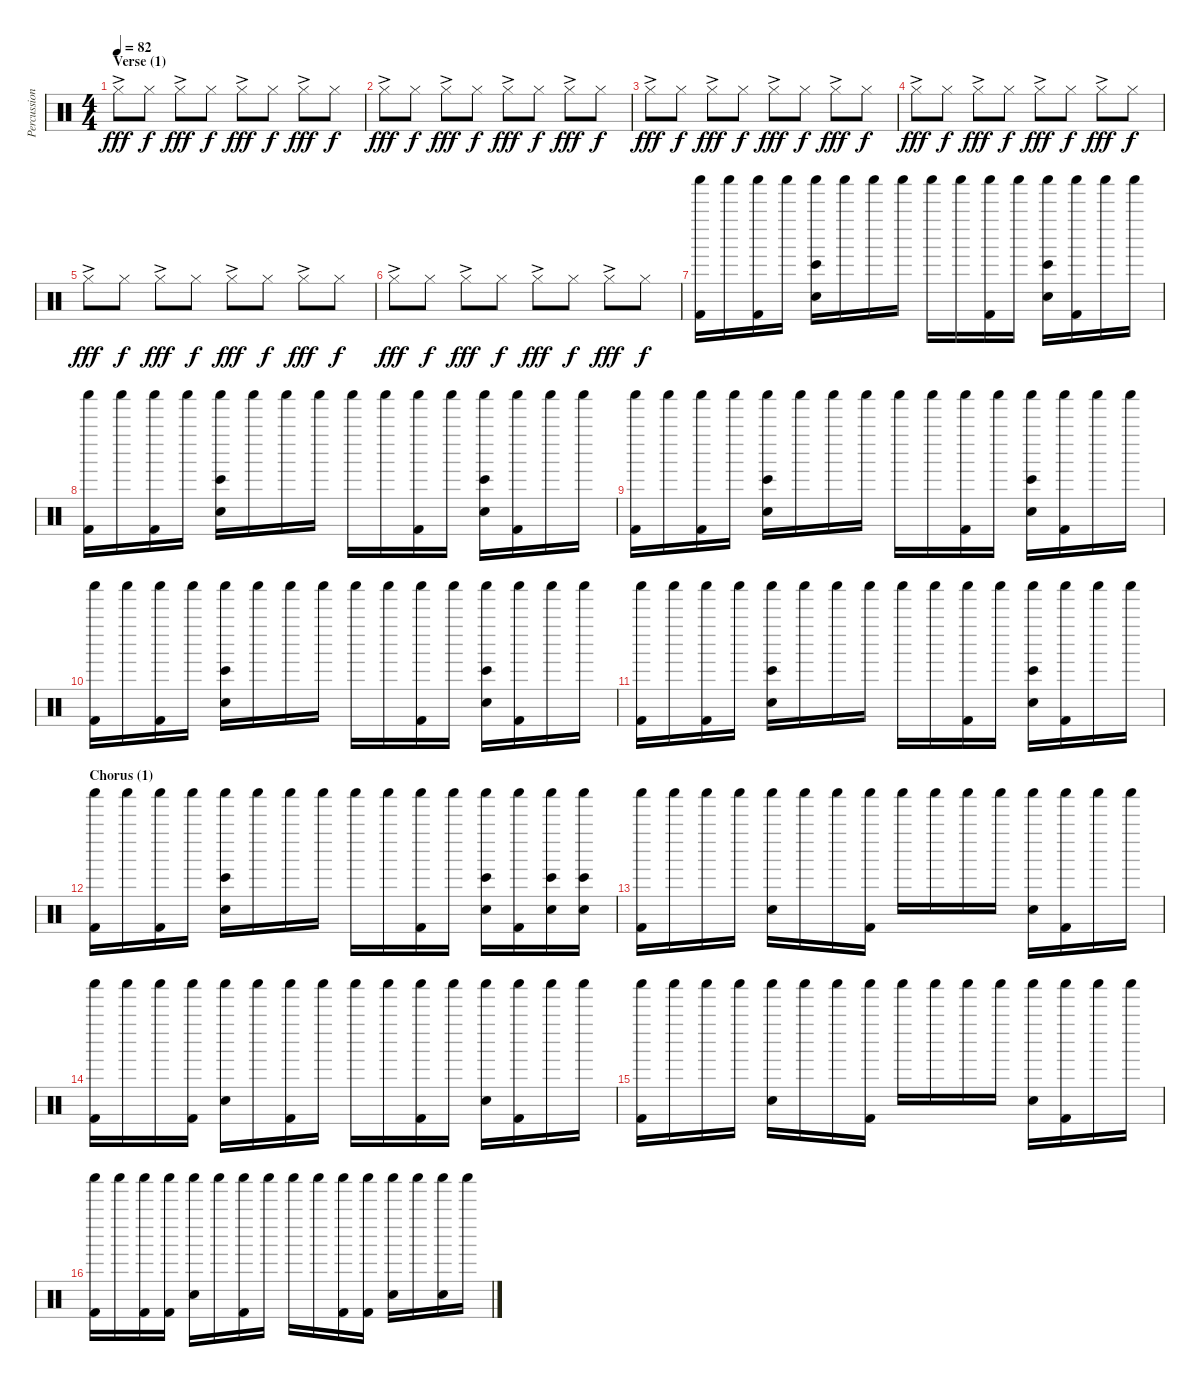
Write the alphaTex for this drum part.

\track ("Percussion" "Percussion") {instrument percussion}
\staff {score}
\articulation defaults
\ts (4 4)
\section ("" "Verse (1)")
\tempo 82
\clef neutral
\ks c "Hi-Hat (closed)"{ac}.8{dy fff} "Hi-Hat (closed)".8{dy f} "Hi-Hat (closed)"{ac}.8{dy fff} "Hi-Hat (closed)".8{dy f} "Hi-Hat (closed)"{ac}.8{dy fff} "Hi-Hat (closed)".8{dy f} "Hi-Hat (closed)"{ac}.8{dy fff} "Hi-Hat (closed)".8{dy f}
|
"Hi-Hat (closed)"{ac}.8{dy fff} "Hi-Hat (closed)".8{dy f} "Hi-Hat (closed)"{ac}.8{dy fff} "Hi-Hat (closed)".8{dy f} "Hi-Hat (closed)"{ac}.8{dy fff} "Hi-Hat (closed)".8{dy f} "Hi-Hat (closed)"{ac}.8{dy fff} "Hi-Hat (closed)".8{dy f} |
"Hi-Hat (closed)"{ac}.8{dy fff} "Hi-Hat (closed)".8{dy f} "Hi-Hat (closed)"{ac}.8{dy fff} "Hi-Hat (closed)".8{dy f} "Hi-Hat (closed)"{ac}.8{dy fff} "Hi-Hat (closed)".8{dy f} "Hi-Hat (closed)"{ac}.8{dy fff} "Hi-Hat (closed)".8{dy f} |
"Hi-Hat (closed)"{ac}.8{dy fff} "Hi-Hat (closed)".8{dy f} "Hi-Hat (closed)"{ac}.8{dy fff} "Hi-Hat (closed)".8{dy f} "Hi-Hat (closed)"{ac}.8{dy fff} "Hi-Hat (closed)".8{dy f} "Hi-Hat (closed)"{ac}.8{dy fff} "Hi-Hat (closed)".8{dy f} |
"Hi-Hat (closed)"{ac}.8{dy fff} "Hi-Hat (closed)".8{dy f} "Hi-Hat (closed)"{ac}.8{dy fff} "Hi-Hat (closed)".8{dy f} "Hi-Hat (closed)"{ac}.8{dy fff} "Hi-Hat (closed)".8{dy f} "Hi-Hat (closed)"{ac}.8{dy fff} "Hi-Hat (closed)".8{dy f} |
"Hi-Hat (closed)"{ac}.8{dy fff} "Hi-Hat (closed)".8{dy f} "Hi-Hat (closed)"{ac}.8{dy fff} "Hi-Hat (closed)".8{dy f} "Hi-Hat (closed)"{ac}.8{dy fff} "Hi-Hat (closed)".8{dy f} "Hi-Hat (closed)"{ac}.8{dy fff} "Hi-Hat (closed)".8{dy f} |
("Shaker (hit)" "Kick (hit) 2").16 "Shaker (hit)".16 ("Shaker (hit)" "Kick (hit) 2").16 "Shaker (hit)".16 ("Shaker (hit)" "Bongo High (hit)" "Hand Clap (hit)").16 "Shaker (hit)".16 "Shaker (hit)".16 "Shaker (hit)".16 "Shaker (hit)".16 "Shaker (hit)".16 ("Shaker (hit)" "Kick (hit) 2").16 "Shaker (hit)".16 ("Shaker (hit)" "Bongo High (hit)" "Hand Clap (hit)").16 ("Shaker (hit)" "Kick (hit) 2").16 "Shaker (hit)".16 "Shaker (hit)".16 |
("Shaker (hit)" "Kick (hit) 2").16 "Shaker (hit)".16 ("Shaker (hit)" "Kick (hit) 2").16 "Shaker (hit)".16 ("Shaker (hit)" "Bongo High (hit)" "Hand Clap (hit)").16 "Shaker (hit)".16 "Shaker (hit)".16 "Shaker (hit)".16 "Shaker (hit)".16 "Shaker (hit)".16 ("Shaker (hit)" "Kick (hit) 2").16 "Shaker (hit)".16 ("Shaker (hit)" "Bongo High (hit)" "Hand Clap (hit)").16 ("Shaker (hit)" "Kick (hit) 2").16 "Shaker (hit)".16 "Shaker (hit)".16 |
("Shaker (hit)" "Kick (hit) 2").16 "Shaker (hit)".16 ("Shaker (hit)" "Kick (hit) 2").16 "Shaker (hit)".16 ("Shaker (hit)" "Bongo High (hit)" "Hand Clap (hit)").16 "Shaker (hit)".16 "Shaker (hit)".16 "Shaker (hit)".16 "Shaker (hit)".16 "Shaker (hit)".16 ("Shaker (hit)" "Kick (hit) 2").16 "Shaker (hit)".16 ("Shaker (hit)" "Bongo High (hit)" "Hand Clap (hit)").16 ("Shaker (hit)" "Kick (hit) 2").16 "Shaker (hit)".16 "Shaker (hit)".16 |
("Shaker (hit)" "Kick (hit) 2").16 "Shaker (hit)".16 ("Shaker (hit)" "Kick (hit) 2").16 "Shaker (hit)".16 ("Shaker (hit)" "Bongo High (hit)" "Hand Clap (hit)").16 "Shaker (hit)".16 "Shaker (hit)".16 "Shaker (hit)".16 "Shaker (hit)".16 "Shaker (hit)".16 ("Shaker (hit)" "Kick (hit) 2").16 "Shaker (hit)".16 ("Shaker (hit)" "Bongo High (hit)" "Hand Clap (hit)").16 ("Shaker (hit)" "Kick (hit) 2").16 "Shaker (hit)".16 "Shaker (hit)".16 |
("Shaker (hit)" "Kick (hit) 2").16 "Shaker (hit)".16 ("Shaker (hit)" "Kick (hit) 2").16 "Shaker (hit)".16 ("Shaker (hit)" "Bongo High (hit)" "Hand Clap (hit)").16 "Shaker (hit)".16 "Shaker (hit)".16 "Shaker (hit)".16 "Shaker (hit)".16 "Shaker (hit)".16 ("Shaker (hit)" "Kick (hit) 2").16 "Shaker (hit)".16 ("Shaker (hit)" "Bongo High (hit)" "Hand Clap (hit)").16 ("Shaker (hit)" "Kick (hit) 2").16 "Shaker (hit)".16 "Shaker (hit)".16 |
\section ("" "Chorus (1)")
("Shaker (hit)" "Kick (hit) 2").16 "Shaker (hit)".16 ("Shaker (hit)" "Kick (hit) 2").16 "Shaker (hit)".16 ("Shaker (hit)" "Bongo High (hit)" "Hand Clap (hit)").16 "Shaker (hit)".16 "Shaker (hit)".16 "Shaker (hit)".16 "Shaker (hit)".16 "Shaker (hit)".16 ("Shaker (hit)" "Kick (hit) 2").16 "Shaker (hit)".16 ("Shaker (hit)" "Bongo High (hit)" "Hand Clap (hit)").16 ("Shaker (hit)" "Kick (hit) 2").16 ("Shaker (hit)" "Bongo High (hit)" "Hand Clap (hit)").16 ("Shaker (hit)" "Bongo High (hit)" "Hand Clap (hit)").16 |
("Shaker (hit)" "Kick (hit) 2").16 "Shaker (hit)".16 "Shaker (hit)".16 "Shaker (hit)".16 ("Shaker (hit)" "Snare (hit) 2").16 "Shaker (hit)".16 "Shaker (hit)".16 ("Shaker (hit)" "Kick (hit) 2").16 "Shaker (hit)".16 "Shaker (hit)".16 "Shaker (hit)".16 "Shaker (hit)".16 ("Shaker (hit)" "Snare (hit) 2").16 ("Shaker (hit)" "Kick (hit) 2").16 "Shaker (hit)".16 "Shaker (hit)".16 |
("Shaker (hit)" "Kick (hit) 2").16 "Shaker (hit)".16 "Shaker (hit)".16 ("Shaker (hit)" "Kick (hit) 2").16 ("Shaker (hit)" "Snare (hit) 2").16 "Shaker (hit)".16 ("Shaker (hit)" "Kick (hit) 2").16 "Shaker (hit)".16 "Shaker (hit)".16 "Shaker (hit)".16 ("Shaker (hit)" "Kick (hit) 2").16 "Shaker (hit)".16 ("Shaker (hit)" "Snare (hit) 2").16 ("Shaker (hit)" "Kick (hit) 2").16 "Shaker (hit)".16 "Shaker (hit)".16 |
("Shaker (hit)" "Kick (hit) 2").16 "Shaker (hit)".16 "Shaker (hit)".16 "Shaker (hit)".16 ("Shaker (hit)" "Snare (hit) 2").16 "Shaker (hit)".16 "Shaker (hit)".16 ("Shaker (hit)" "Kick (hit) 2").16 "Shaker (hit)".16 "Shaker (hit)".16 "Shaker (hit)".16 "Shaker (hit)".16 ("Shaker (hit)" "Snare (hit) 2").16 ("Shaker (hit)" "Kick (hit) 2").16 "Shaker (hit)".16 "Shaker (hit)".16 |
("Shaker (hit)" "Kick (hit) 2").16 "Shaker (hit)".16 ("Shaker (hit)" "Kick (hit) 2").16 ("Shaker (hit)" "Kick (hit) 2").16 ("Shaker (hit)" "Snare (hit) 2").16 "Shaker (hit)".16 ("Shaker (hit)" "Kick (hit) 2").16 "Shaker (hit)".16 "Shaker (hit)".16 "Shaker (hit)".16 ("Shaker (hit)" "Kick (hit) 2").16 ("Shaker (hit)" "Kick (hit) 2").16 ("Shaker (hit)" "Snare (hit) 2").16 "Shaker (hit)".16 ("Shaker (hit)" "Snare (hit) 2").16 "Shaker (hit)".16
